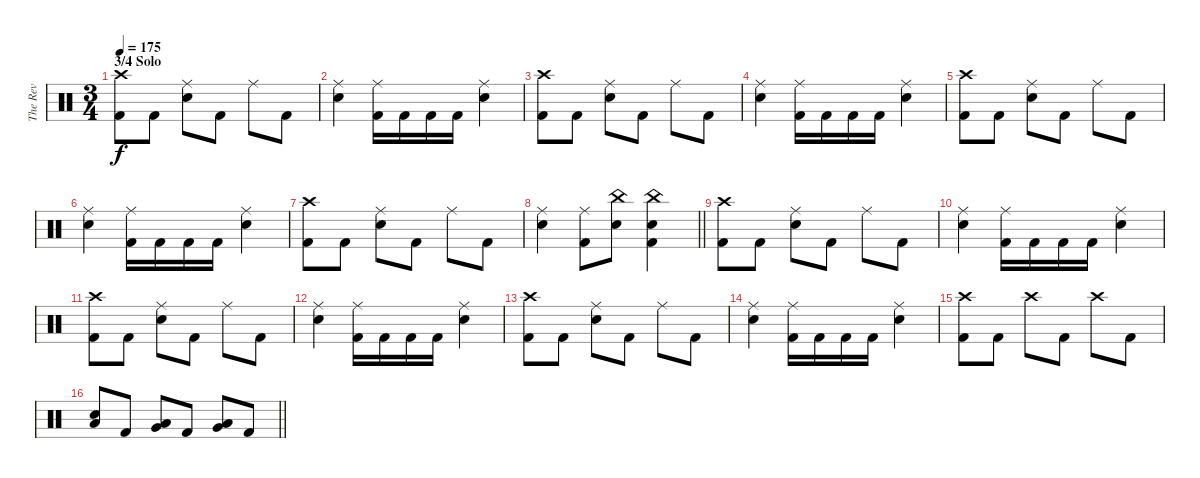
\track ("The Rev" "The Rev") {instrument percussion}
\staff {score}
\articulation defaults
\ts (3 4)
\section ("" "3/4 Solo")
\tempo 175
\clef neutral
\ks c
("Crash high (hit)" "Kick (hit) 2").8{dy f} "Kick (hit) 2".8 ("Ride (middle)" "Snare (hit) 2").8 "Kick (hit) 2".8 "Ride (middle)".8 "Kick (hit) 2".8 |
("Ride (middle)" "Snare (hit) 2").4 ("Ride (middle)" "Kick (hit) 2").16 "Kick (hit) 2".16 "Kick (hit) 2".16 "Kick (hit) 2".16 ("Ride (middle)" "Snare (hit) 2").4 |
("Crash high (hit)" "Kick (hit) 2").8 "Kick (hit) 2".8 ("Ride (middle)" "Snare (hit) 2").8 "Kick (hit) 2".8 "Ride (middle)".8 "Kick (hit) 2".8 |
("Ride (middle)" "Snare (hit) 2").4 ("Ride (middle)" "Kick (hit) 2").16 "Kick (hit) 2".16 "Kick (hit) 2".16 "Kick (hit) 2".16 ("Ride (middle)" "Snare (hit) 2").4 |
("Crash high (hit)" "Kick (hit) 2").8 "Kick (hit) 2".8 ("Ride (middle)" "Snare (hit) 2").8 "Kick (hit) 2".8 "Ride (middle)".8 "Kick (hit) 2".8 |
("Ride (middle)" "Snare (hit) 2").4 ("Ride (middle)" "Kick (hit) 2").16 "Kick (hit) 2".16 "Kick (hit) 2".16 "Kick (hit) 2".16 ("Ride (middle)" "Snare (hit) 2").4 |
("Crash high (hit)" "Kick (hit) 2").8 "Kick (hit) 2".8 ("Ride (middle)" "Snare (hit) 2").8 "Kick (hit) 2".8 "Ride (middle)".8 "Kick (hit) 2".8 |
\barLineRight lightlight
("Ride (middle)" "Snare (hit) 2").4 ("Ride (middle)" "Kick (hit) 2").8 ("China (hit)" "Snare (hit) 2").8 ("China (hit)" "Snare (hit) 2" "Kick (hit) 2").4 |
("Crash high (hit)" "Kick (hit) 2").8 "Kick (hit) 2".8 ("Ride (middle)" "Snare (hit) 2").8 "Kick (hit) 2".8 "Ride (middle)".8 "Kick (hit) 2".8 |
("Ride (middle)" "Snare (hit) 2").4 ("Ride (middle)" "Kick (hit) 2").16 "Kick (hit) 2".16 "Kick (hit) 2".16 "Kick (hit) 2".16 ("Ride (middle)" "Snare (hit) 2").4 |
("Crash high (hit)" "Kick (hit) 2").8 "Kick (hit) 2".8 ("Ride (middle)" "Snare (hit) 2").8 "Kick (hit) 2".8 "Ride (middle)".8 "Kick (hit) 2".8 |
("Ride (middle)" "Snare (hit) 2").4 ("Ride (middle)" "Kick (hit) 2").16 "Kick (hit) 2".16 "Kick (hit) 2".16 "Kick (hit) 2".16 ("Ride (middle)" "Snare (hit) 2").4 |
("Crash high (hit)" "Kick (hit) 2").8 "Kick (hit) 2".8 ("Ride (middle)" "Snare (hit) 2").8 "Kick (hit) 2".8 "Ride (middle)".8 "Kick (hit) 2".8 |
("Ride (middle)" "Snare (hit) 2").4 ("Ride (middle)" "Kick (hit) 2").16 "Kick (hit) 2".16 "Kick (hit) 2".16 "Kick (hit) 2".16 ("Ride (middle)" "Snare (hit) 2").4 |
("Crash high (hit)" "Kick (hit) 2").8 "Kick (hit) 2".8 "Crash high (hit)".8 "Kick (hit) 2".8 "Crash high (hit)".8 "Kick (hit) 2".8 |
\barLineRight lightlight
("Low Tom (hit)" "Snare (hit) 2").8 "Kick (hit) 2".8 ("Low Tom (hit)" "Very Low Tom (hit)").8 "Kick (hit) 2".8 ("Low Tom (hit)" "Very Low Tom (hit)").8 "Kick (hit) 2".8
